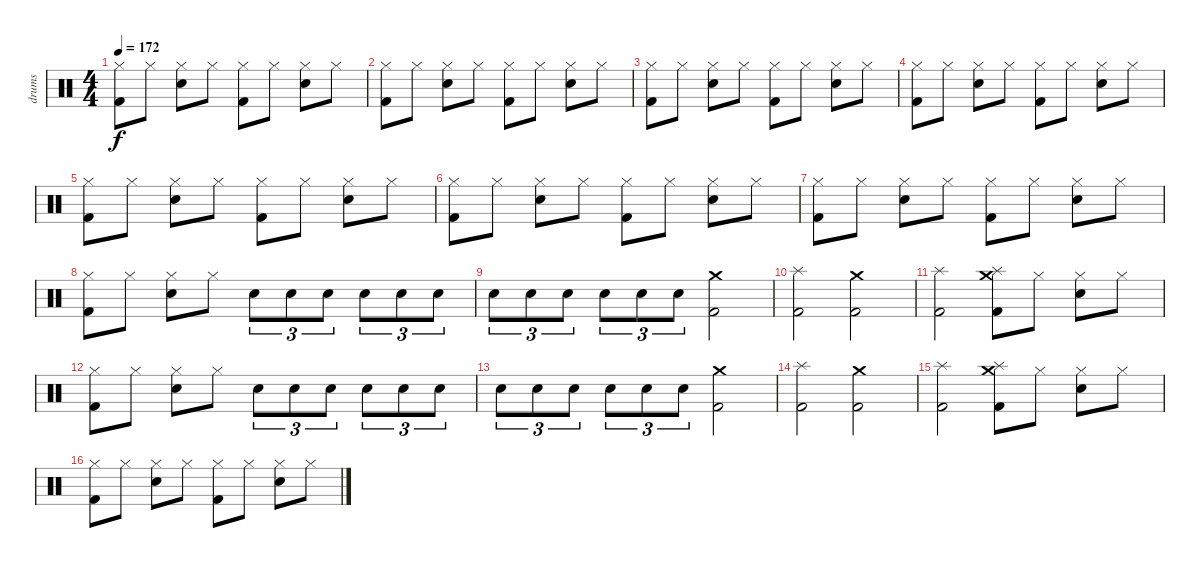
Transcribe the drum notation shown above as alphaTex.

\track ("drums" "drums") {instrument percussion}
\staff {score}
\articulation defaults
\ts (4 4)
\tempo 172
\clef neutral
\ks c
("Hi-Hat (closed)" "Kick (hit) 2").8{dy f} "Hi-Hat (closed)".8 ("Hi-Hat (closed)" "Snare (hit) 2").8 "Hi-Hat (closed)".8 ("Hi-Hat (closed)" "Kick (hit) 2").8 "Hi-Hat (closed)".8 ("Hi-Hat (closed)" "Snare (hit) 2").8 "Hi-Hat (closed)".8 |
("Hi-Hat (closed)" "Kick (hit) 2").8 "Hi-Hat (closed)".8 ("Hi-Hat (closed)" "Snare (hit) 2").8 "Hi-Hat (closed)".8 ("Hi-Hat (closed)" "Kick (hit) 2").8 "Hi-Hat (closed)".8 ("Hi-Hat (closed)" "Snare (hit) 2").8 "Hi-Hat (closed)".8 |
("Hi-Hat (closed)" "Kick (hit) 2").8 "Hi-Hat (closed)".8 ("Hi-Hat (closed)" "Snare (hit) 2").8 "Hi-Hat (closed)".8 ("Hi-Hat (closed)" "Kick (hit) 2").8 "Hi-Hat (closed)".8 ("Hi-Hat (closed)" "Snare (hit) 2").8 "Hi-Hat (closed)".8 |
("Hi-Hat (closed)" "Kick (hit) 2").8 "Hi-Hat (closed)".8 ("Hi-Hat (closed)" "Snare (hit) 2").8 "Hi-Hat (closed)".8 ("Hi-Hat (closed)" "Kick (hit) 2").8 "Hi-Hat (closed)".8 ("Hi-Hat (closed)" "Snare (hit) 2").8 "Hi-Hat (closed)".8 |
("Hi-Hat (closed)" "Kick (hit) 2").8 "Hi-Hat (closed)".8 ("Hi-Hat (closed)" "Snare (hit) 2").8 "Hi-Hat (closed)".8 ("Hi-Hat (closed)" "Kick (hit) 2").8 "Hi-Hat (closed)".8 ("Hi-Hat (closed)" "Snare (hit) 2").8 "Hi-Hat (closed)".8 |
("Hi-Hat (closed)" "Kick (hit) 2").8 "Hi-Hat (closed)".8 ("Hi-Hat (closed)" "Snare (hit) 2").8 "Hi-Hat (closed)".8 ("Hi-Hat (closed)" "Kick (hit) 2").8 "Hi-Hat (closed)".8 ("Hi-Hat (closed)" "Snare (hit) 2").8 "Hi-Hat (closed)".8 |
("Hi-Hat (closed)" "Kick (hit) 2").8 "Hi-Hat (closed)".8 ("Hi-Hat (closed)" "Snare (hit) 2").8 "Hi-Hat (closed)".8 ("Hi-Hat (closed)" "Kick (hit) 2").8 "Hi-Hat (closed)".8 ("Hi-Hat (closed)" "Snare (hit) 2").8 "Hi-Hat (closed)".8 |
("Hi-Hat (closed)" "Kick (hit) 2").8 "Hi-Hat (closed)".8 ("Hi-Hat (closed)" "Snare (hit) 2").8 "Hi-Hat (closed)".8 "Snare (hit) 2".8{tu (3 2)} "Snare (hit) 2".8{tu (3 2)} "Snare (hit) 2".8{tu (3 2)} "Snare (hit) 2".8{tu (3 2)} "Snare (hit) 2".8{tu (3 2)} "Snare (hit) 2".8{tu (3 2)} |
"Snare (hit) 2".8{tu (3 2)} "Snare (hit) 2".8{tu (3 2)} "Snare (hit) 2".8{tu (3 2)} "Snare (hit) 2".8{tu (3 2)} "Snare (hit) 2".8{tu (3 2)} "Snare (hit) 2".8{tu (3 2)} ("Crash medium (hit)" "Kick (hit) 2").2 |
("Splash (hit)" "Kick (hit) 2").2 ("Crash medium (hit)" "Kick (hit) 2").2 |
("Splash (hit)" "Kick (hit) 2").2 ("Crash medium (hit)" "Splash (hit)" "Kick (hit) 2").8 "Hi-Hat (closed)".8 ("Hi-Hat (closed)" "Snare (hit) 2").8 "Hi-Hat (closed)".8 |
("Hi-Hat (closed)" "Kick (hit) 2").8 "Hi-Hat (closed)".8 ("Hi-Hat (closed)" "Snare (hit) 2").8 "Hi-Hat (closed)".8 "Snare (hit) 2".8{tu (3 2)} "Snare (hit) 2".8{tu (3 2)} "Snare (hit) 2".8{tu (3 2)} "Snare (hit) 2".8{tu (3 2)} "Snare (hit) 2".8{tu (3 2)} "Snare (hit) 2".8{tu (3 2)} |
"Snare (hit) 2".8{tu (3 2)} "Snare (hit) 2".8{tu (3 2)} "Snare (hit) 2".8{tu (3 2)} "Snare (hit) 2".8{tu (3 2)} "Snare (hit) 2".8{tu (3 2)} "Snare (hit) 2".8{tu (3 2)} ("Crash medium (hit)" "Kick (hit) 2").2 |
("Splash (hit)" "Kick (hit) 2").2 ("Crash medium (hit)" "Kick (hit) 2").2 |
("Splash (hit)" "Kick (hit) 2").2 ("Crash medium (hit)" "Splash (hit)" "Kick (hit) 2").8 "Hi-Hat (closed)".8 ("Hi-Hat (closed)" "Snare (hit) 2").8 "Hi-Hat (closed)".8 |
("Hi-Hat (closed)" "Kick (hit) 2").8 "Hi-Hat (closed)".8 ("Hi-Hat (closed)" "Snare (hit) 2").8 "Hi-Hat (closed)".8 ("Hi-Hat (closed)" "Kick (hit) 2").8 "Hi-Hat (closed)".8 ("Hi-Hat (closed)" "Snare (hit) 2").8 "Hi-Hat (closed)".8
